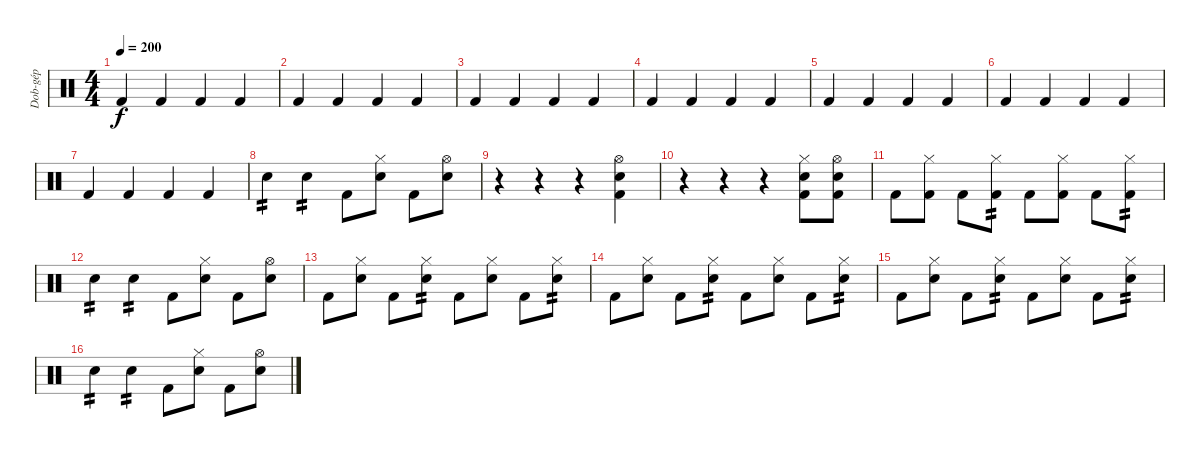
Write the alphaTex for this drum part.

\track ("Dob-gép" "Dob-gép") {instrument percussion}
\staff {score}
\articulation defaults
\ts (4 4)
\tempo 200
\clef neutral
\ks c "Kick (hit) 2".4{dy f} "Kick (hit) 2".4 "Kick (hit) 2".4 "Kick (hit) 2".4
|
"Kick (hit) 2".4 "Kick (hit) 2".4 "Kick (hit) 2".4 "Kick (hit) 2".4 |
"Kick (hit) 2".4 "Kick (hit) 2".4 "Kick (hit) 2".4 "Kick (hit) 2".4 |
"Kick (hit) 2".4 "Kick (hit) 2".4 "Kick (hit) 2".4 "Kick (hit) 2".4 |
"Kick (hit) 2".4 "Kick (hit) 2".4 "Kick (hit) 2".4 "Kick (hit) 2".4 |
"Kick (hit) 2".4 "Kick (hit) 2".4 "Kick (hit) 2".4 "Kick (hit) 2".4 |
"Kick (hit) 2".4 "Kick (hit) 2".4 "Kick (hit) 2".4 "Kick (hit) 2".4 |
"Snare (hit) 2".4{tp 2} "Snare (hit) 2".4{tp 2} "Kick (hit) 2".8 ("Hi-Hat (closed)" "Snare (hit) 2").8 "Kick (hit) 2".8 ("Hi-Hat (open)" "Snare (hit) 2").8 |
r.4 r.4 r.4 ("Hi-Hat (open)" "Snare (hit) 2" "Kick (hit) 2").4 |
r.4 r.4 r.4 ("Hi-Hat (closed)" "Kick (hit) 2" "Snare (hit) 2").8 ("Hi-Hat (open)" "Kick (hit) 2" "Snare (hit) 2").8 |
"Kick (hit) 2".8 ("Hi-Hat (closed)" "Kick (hit) 2").8 "Kick (hit) 2".8 ("Hi-Hat (closed)" "Kick (hit) 2").8{tp 2} "Kick (hit) 2".8 ("Hi-Hat (closed)" "Kick (hit) 2").8 "Kick (hit) 2".8 ("Hi-Hat (closed)" "Kick (hit) 2").8{tp 2} |
"Snare (hit) 2".4{tp 2} "Snare (hit) 2".4{tp 2} "Kick (hit) 2".8 ("Hi-Hat (closed)" "Snare (hit) 2").8 "Kick (hit) 2".8 ("Hi-Hat (open)" "Snare (hit) 2").8 |
"Kick (hit) 2".8 ("Hi-Hat (closed)" "Snare (hit) 2").8 "Kick (hit) 2".8 ("Hi-Hat (closed)" "Snare (hit) 2").8{tp 2} "Kick (hit) 2".8 ("Hi-Hat (closed)" "Snare (hit) 2").8 "Kick (hit) 2".8 ("Hi-Hat (closed)" "Snare (hit) 2").8{tp 2} |
"Kick (hit) 2".8 ("Hi-Hat (closed)" "Snare (hit) 2").8 "Kick (hit) 2".8 ("Hi-Hat (closed)" "Snare (hit) 2").8{tp 2} "Kick (hit) 2".8 ("Hi-Hat (closed)" "Snare (hit) 2").8 "Kick (hit) 2".8 ("Hi-Hat (closed)" "Snare (hit) 2").8{tp 2} |
"Kick (hit) 2".8 ("Hi-Hat (closed)" "Snare (hit) 2").8 "Kick (hit) 2".8 ("Hi-Hat (closed)" "Snare (hit) 2").8{tp 2} "Kick (hit) 2".8 ("Hi-Hat (closed)" "Snare (hit) 2").8 "Kick (hit) 2".8 ("Hi-Hat (closed)" "Snare (hit) 2").8{tp 2} |
"Snare (hit) 2".4{tp 2} "Snare (hit) 2".4{tp 2} "Kick (hit) 2".8 ("Hi-Hat (closed)" "Snare (hit) 2").8 "Kick (hit) 2".8 ("Hi-Hat (open)" "Snare (hit) 2").8
